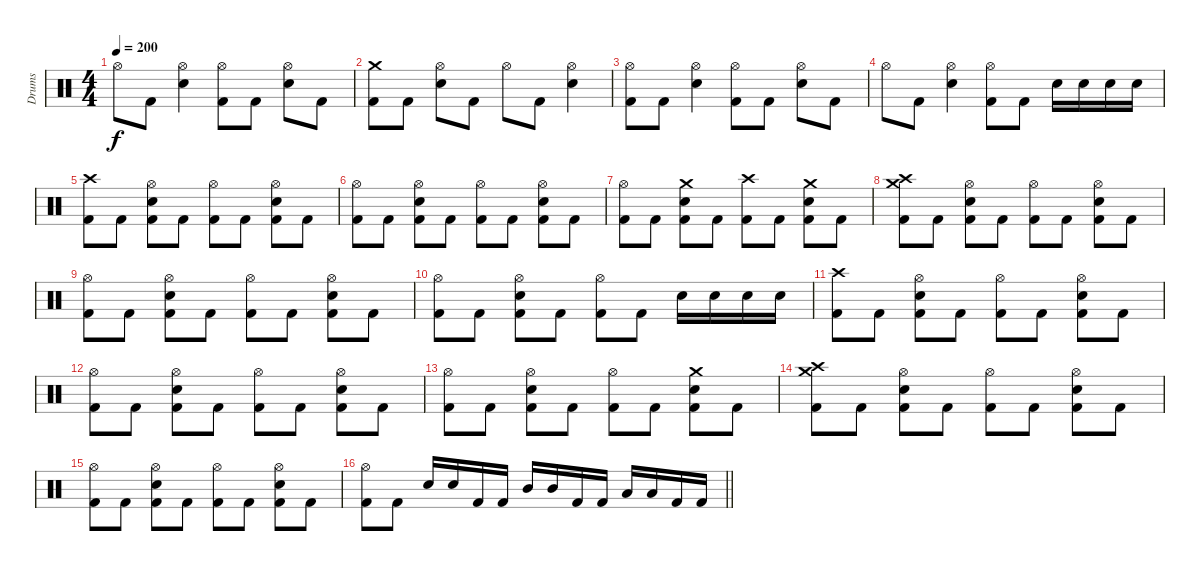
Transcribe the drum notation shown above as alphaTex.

\track ("Drums" "Drums") {instrument percussion}
\staff {score}
\articulation defaults
\ts (4 4)
\tempo 200
\clef neutral
\ks c "Hi-Hat (open)".8{dy f} "Kick (hit) 2".8
("Hi-Hat (open)" "Snare (hit) 2").4 ("Hi-Hat (open)" "Kick (hit) 2").8 "Kick (hit) 2".8 ("Hi-Hat (open)" "Snare (hit) 2").8 "Kick (hit) 2".8 |
("Crash medium (hit)" "Kick (hit) 2").8 "Kick (hit) 2".8 ("Hi-Hat (open)" "Snare (hit) 2").8 "Kick (hit) 2".8 "Hi-Hat (open)".8 "Kick (hit) 2".8 ("Hi-Hat (open)" "Snare (hit) 2").4 |
("Hi-Hat (open)" "Kick (hit) 2").8 "Kick (hit) 2".8 ("Hi-Hat (open)" "Snare (hit) 2").4 ("Hi-Hat (open)" "Kick (hit) 2").8 "Kick (hit) 2".8 ("Hi-Hat (open)" "Snare (hit) 2").8 "Kick (hit) 2".8 |
"Hi-Hat (open)".8 "Kick (hit) 2".8 ("Hi-Hat (open)" "Snare (hit) 2").4 ("Hi-Hat (open)" "Kick (hit) 2").8 "Kick (hit) 2".8 "Snare (hit) 2".16 "Snare (hit) 2".16 "Snare (hit) 2".16 "Snare (hit) 2".16 |
("Crash high (hit)" "Kick (hit) 2").8 "Kick (hit) 2".8 ("Hi-Hat (open)" "Snare (hit) 2" "Kick (hit) 2").8 "Kick (hit) 2".8 ("Hi-Hat (open)" "Kick (hit) 2").8 "Kick (hit) 2".8 ("Hi-Hat (open)" "Snare (hit) 2" "Kick (hit) 2").8 "Kick (hit) 2".8 |
("Hi-Hat (open)" "Kick (hit) 2").8 "Kick (hit) 2".8 ("Hi-Hat (open)" "Snare (hit) 2" "Kick (hit) 2").8 "Kick (hit) 2".8 ("Hi-Hat (open)" "Kick (hit) 2").8 "Kick (hit) 2".8 ("Hi-Hat (open)" "Snare (hit) 2" "Kick (hit) 2").8 "Kick (hit) 2".8 |
("Hi-Hat (open)" "Kick (hit) 2").8 "Kick (hit) 2".8 ("Crash medium (hit)" "Snare (hit) 2" "Kick (hit) 2").8 "Kick (hit) 2".8 ("Crash high (hit)" "Kick (hit) 2").8 "Kick (hit) 2".8 ("Crash medium (hit)" "Snare (hit) 2" "Kick (hit) 2").8 "Kick (hit) 2".8 |
("Crash medium (hit)" "Crash high (hit)" "Kick (hit) 2").8 "Kick (hit) 2".8 ("Hi-Hat (open)" "Snare (hit) 2" "Kick (hit) 2").8 "Kick (hit) 2".8 ("Hi-Hat (open)" "Kick (hit) 2").8 "Kick (hit) 2".8 ("Hi-Hat (open)" "Snare (hit) 2" "Kick (hit) 2").8 "Kick (hit) 2".8 |
("Hi-Hat (open)" "Kick (hit) 2").8 "Kick (hit) 2".8 ("Hi-Hat (open)" "Snare (hit) 2" "Kick (hit) 2").8 "Kick (hit) 2".8 ("Hi-Hat (open)" "Kick (hit) 2").8 "Kick (hit) 2".8 ("Hi-Hat (open)" "Snare (hit) 2" "Kick (hit) 2").8 "Kick (hit) 2".8 |
("Hi-Hat (open)" "Kick (hit) 2").8 "Kick (hit) 2".8 ("Hi-Hat (open)" "Snare (hit) 2" "Kick (hit) 2").8 "Kick (hit) 2".8 ("Hi-Hat (open)" "Kick (hit) 2").8 "Kick (hit) 2".8 "Snare (hit) 2".16 "Snare (hit) 2".16 "Snare (hit) 2".16 "Snare (hit) 2".16 |
("Crash high (hit)" "Kick (hit) 2").8 "Kick (hit) 2".8 ("Hi-Hat (open)" "Snare (hit) 2" "Kick (hit) 2").8 "Kick (hit) 2".8 ("Hi-Hat (open)" "Kick (hit) 2").8 "Kick (hit) 2".8 ("Hi-Hat (open)" "Snare (hit) 2" "Kick (hit) 2").8 "Kick (hit) 2".8 |
("Hi-Hat (open)" "Kick (hit) 2").8 "Kick (hit) 2".8 ("Hi-Hat (open)" "Snare (hit) 2" "Kick (hit) 2").8 "Kick (hit) 2".8 ("Hi-Hat (open)" "Kick (hit) 2").8 "Kick (hit) 2".8 ("Hi-Hat (open)" "Snare (hit) 2" "Kick (hit) 2").8 "Kick (hit) 2".8 |
("Hi-Hat (open)" "Kick (hit) 2").8 "Kick (hit) 2".8 ("Hi-Hat (open)" "Snare (hit) 2" "Kick (hit) 2").8 "Kick (hit) 2".8 ("Hi-Hat (open)" "Kick (hit) 2").8 "Kick (hit) 2".8 ("Crash medium (hit)" "Snare (hit) 2" "Kick (hit) 2").8 "Kick (hit) 2".8 |
("Crash medium (hit)" "Crash high (hit)" "Kick (hit) 2").8 "Kick (hit) 2".8 ("Hi-Hat (open)" "Snare (hit) 2" "Kick (hit) 2").8 "Kick (hit) 2".8 ("Hi-Hat (open)" "Kick (hit) 2").8 "Kick (hit) 2".8 ("Hi-Hat (open)" "Snare (hit) 2" "Kick (hit) 2").8 "Kick (hit) 2".8 |
("Hi-Hat (open)" "Kick (hit) 2").8 "Kick (hit) 2".8 ("Hi-Hat (open)" "Snare (hit) 2" "Kick (hit) 2").8 "Kick (hit) 2".8 ("Hi-Hat (open)" "Kick (hit) 2").8 "Kick (hit) 2".8 ("Hi-Hat (open)" "Snare (hit) 2" "Kick (hit) 2").8 "Kick (hit) 2".8 |
\barLineRight lightlight
("Hi-Hat (open)" "Kick (hit) 2").8 "Kick (hit) 2".8 "Snare (hit) 2".16 "Snare (hit) 2".16 "Kick (hit) 2".16 "Kick (hit) 2".16 "Mid Tom (hit)".16 "Mid Tom (hit)".16 "Kick (hit) 2".16 "Kick (hit) 2".16 "Low Tom (hit)".16 "Low Tom (hit)".16 "Kick (hit) 2".16 "Kick (hit) 2".16
